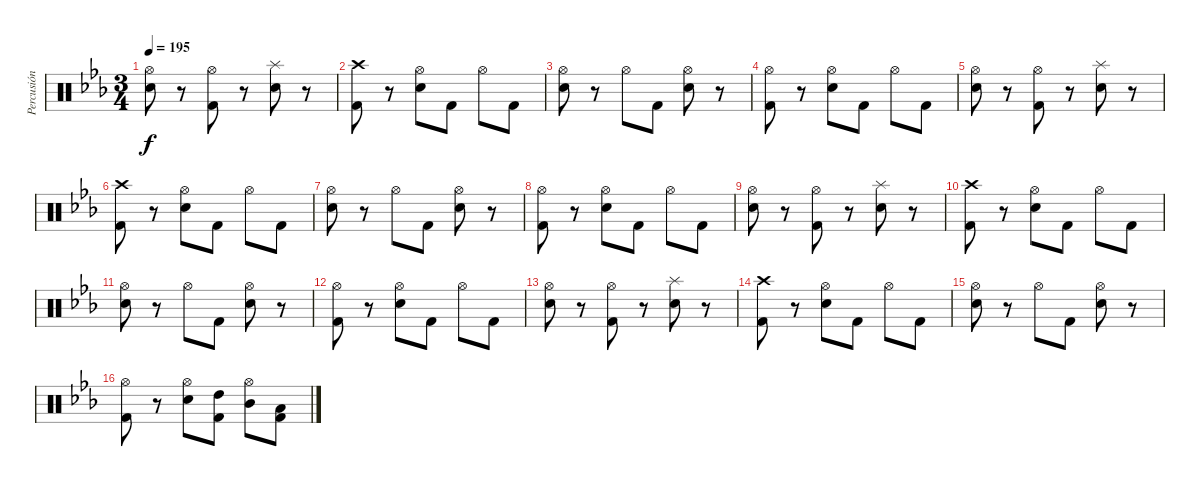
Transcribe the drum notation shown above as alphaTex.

\track ("Percusión" "Percusión") {instrument percussion}
\staff {score}
\articulation defaults
\ts (3 4)
\tempo 195
\clef neutral
\ks eb
("Hi-Hat (open)" "Snare (hit) 2").8{dy f} r.8 ("Hi-Hat (open)" "Kick (hit) 2").8 r.8 ("Splash (hit)" "Snare (hit) 2").8 r.8 |
("Crash high (hit)" "Kick (hit) 2").8 r.8 ("Hi-Hat (open)" "Snare (hit) 2").8 "Kick (hit) 2".8 "Hi-Hat (open)".8 "Kick (hit) 2".8 |
("Hi-Hat (open)" "Snare (hit) 2").8 r.8 "Hi-Hat (open)".8 "Kick (hit) 2".8 ("Hi-Hat (open)" "Snare (hit) 2").8 r.8 |
("Hi-Hat (open)" "Kick (hit) 2").8 r.8 ("Hi-Hat (open)" "Snare (hit) 2").8 "Kick (hit) 2".8 "Hi-Hat (open)".8 "Kick (hit) 2".8 |
("Hi-Hat (open)" "Snare (hit) 2").8 r.8 ("Hi-Hat (open)" "Kick (hit) 2").8 r.8 ("Splash (hit)" "Snare (hit) 2").8 r.8 |
("Crash high (hit)" "Kick (hit) 2").8 r.8 ("Hi-Hat (open)" "Snare (hit) 2").8 "Kick (hit) 2".8 "Hi-Hat (open)".8 "Kick (hit) 2".8 |
("Hi-Hat (open)" "Snare (hit) 2").8 r.8 "Hi-Hat (open)".8 "Kick (hit) 2".8 ("Hi-Hat (open)" "Snare (hit) 2").8 r.8 |
("Hi-Hat (open)" "Kick (hit) 2").8 r.8 ("Hi-Hat (open)" "Snare (hit) 2").8 "Kick (hit) 2".8 "Hi-Hat (open)".8 "Kick (hit) 2".8 |
("Hi-Hat (open)" "Snare (hit) 2").8 r.8 ("Hi-Hat (open)" "Kick (hit) 2").8 r.8 ("Splash (hit)" "Snare (hit) 2").8 r.8 |
("Crash high (hit)" "Kick (hit) 2").8 r.8 ("Hi-Hat (open)" "Snare (hit) 2").8 "Kick (hit) 2".8 "Hi-Hat (open)".8 "Kick (hit) 2".8 |
("Hi-Hat (open)" "Snare (hit) 2").8 r.8 "Hi-Hat (open)".8 "Kick (hit) 2".8 ("Hi-Hat (open)" "Snare (hit) 2").8 r.8 |
("Hi-Hat (open)" "Kick (hit) 2").8 r.8 ("Hi-Hat (open)" "Snare (hit) 2").8 "Kick (hit) 2".8 "Hi-Hat (open)".8 "Kick (hit) 2".8 |
("Hi-Hat (open)" "Snare (hit) 2").8 r.8 ("Hi-Hat (open)" "Kick (hit) 2").8 r.8 ("Splash (hit)" "Snare (hit) 2").8 r.8 |
("Crash high (hit)" "Kick (hit) 2").8 r.8 ("Hi-Hat (open)" "Snare (hit) 2").8 "Kick (hit) 2".8 "Hi-Hat (open)".8 "Kick (hit) 2".8 |
("Hi-Hat (open)" "Snare (hit) 2").8 r.8 "Hi-Hat (open)".8 "Kick (hit) 2".8 ("Hi-Hat (open)" "Snare (hit) 2").8 r.8 |
("Hi-Hat (open)" "Kick (hit) 2").8 r.8 ("Hi-Hat (open)" "Snare (hit) 2").8 ("High Tom (hit)" "Kick (hit) 2").8 ("Hi-Hat (open)" "Mid Tom (hit)").8 ("Low Tom (hit)" "Kick (hit) 2").8
